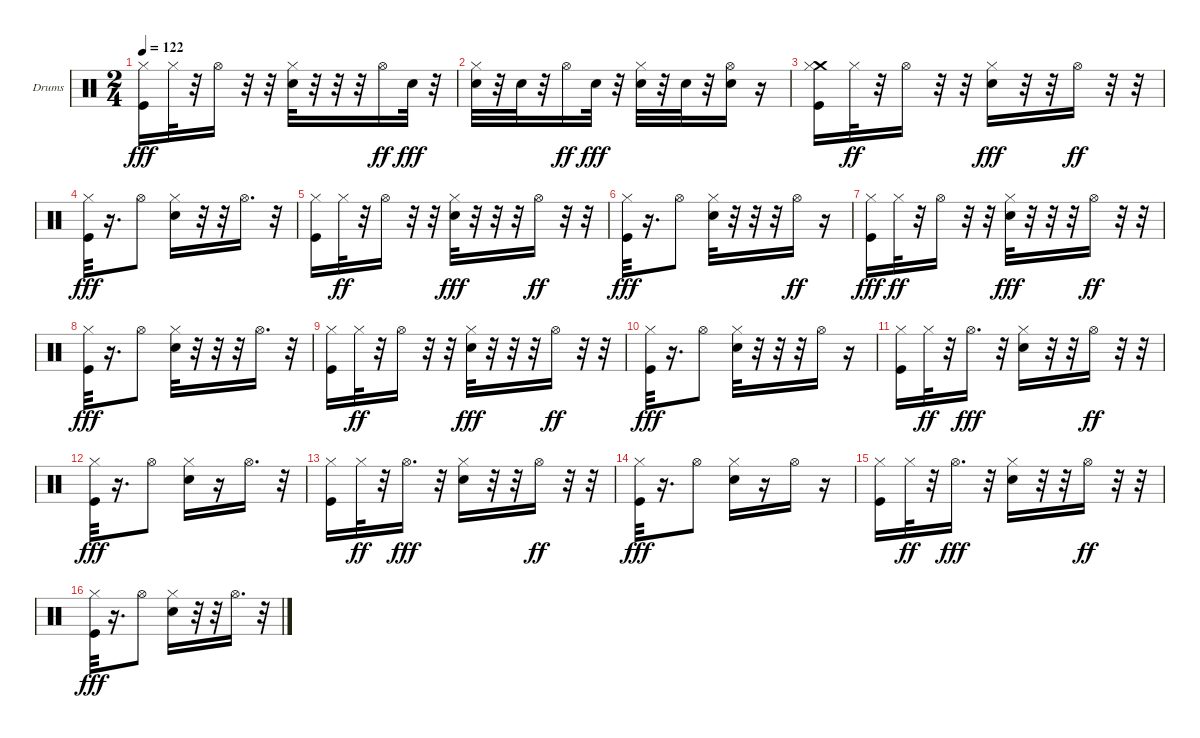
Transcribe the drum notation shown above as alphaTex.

\bracketExtendMode groupsimilarinstruments
\firstSystemTrackNameOrientation horizontal
\otherSystemsTrackNameOrientation horizontal
\track ("Ударные" "Drums") {instrument percussion}
\staff {score}
\articulation defaults
\ts (2 4)
\tempo 122
\clef neutral
\ks c
("Kick (hit)" "Hi-Hat (closed)").16{dy fff} "Hi-Hat (closed)".32 r.32 "Hi-Hat (open)".16 r.32 r.32 ("Snare (hit) 2" "Hi-Hat (closed)").32 r.32 r.32 r.32 "Hi-Hat (open)".16{dy ff} "Snare (hit) 2".32{dy fff} r.32 |
("Snare (hit) 2" "Hi-Hat (closed)").32 r.32 "Snare (hit) 2".32 r.32 "Hi-Hat (open)".16{dy ff} "Snare (hit) 2".32{dy fff} r.32 ("Snare (hit) 2" "Hi-Hat (closed)").32 r.32 "Snare (hit) 2".32 r.32 ("Snare (hit) 2" "Hi-Hat (open)").16 r.16 |
("Kick (hit)" "Crash medium (hit)" "Hi-Hat (closed)").16 "Hi-Hat (closed)".32{dy ff} r.32 "Hi-Hat (open)".16 r.32 r.32 ("Snare (hit) 2" "Hi-Hat (closed)").16{dy fff} r.32 r.32 "Hi-Hat (open)".16{dy ff} r.32 r.32 |
("Kick (hit)" "Hi-Hat (closed)").32{dy fff} r.16{d} "Hi-Hat (open)".8 ("Snare (hit) 2" "Hi-Hat (closed)").16 r.32 r.32 "Hi-Hat (open)".16{d} r.32 |
("Kick (hit)" "Hi-Hat (closed)").16 "Hi-Hat (closed)".32{dy ff} r.32 "Hi-Hat (open)".16 r.32 r.32 ("Snare (hit) 2" "Hi-Hat (closed)").32{dy fff} r.32 r.32 r.32 "Hi-Hat (open)".16{dy ff} r.32 r.32 |
("Kick (hit)" "Hi-Hat (closed)").32{dy fff} r.16{d} "Hi-Hat (open)".8 ("Snare (hit) 2" "Hi-Hat (closed)").32 r.32 r.32 r.32 "Hi-Hat (open)".16{dy ff} r.16 |
("Kick (hit)" "Hi-Hat (closed)").16{dy fff} "Hi-Hat (closed)".32{dy ff} r.32 "Hi-Hat (open)".16 r.32 r.32 ("Snare (hit) 2" "Hi-Hat (closed)").32{dy fff} r.32 r.32 r.32 "Hi-Hat (open)".16{dy ff} r.32 r.32 |
("Kick (hit)" "Hi-Hat (closed)").32{dy fff} r.16{d} "Hi-Hat (open)".8 ("Snare (hit) 2" "Hi-Hat (closed)").32 r.32 r.32 r.32 "Hi-Hat (open)".16{d} r.32 |
("Kick (hit)" "Hi-Hat (closed)").16 "Hi-Hat (closed)".32{dy ff} r.32 "Hi-Hat (open)".16 r.32 r.32 ("Snare (hit) 2" "Hi-Hat (closed)").32{dy fff} r.32 r.32 r.32 "Hi-Hat (open)".16{dy ff} r.32 r.32 |
("Kick (hit)" "Hi-Hat (closed)").32{dy fff} r.16{d} "Hi-Hat (open)".8 ("Snare (hit) 2" "Hi-Hat (closed)").32 r.32 r.32 r.32 "Hi-Hat (open)".16 r.16 |
("Kick (hit)" "Hi-Hat (closed)").16 "Hi-Hat (closed)".32{dy ff} r.32 "Hi-Hat (open)".16{d dy fff} r.32 ("Snare (hit) 2" "Hi-Hat (closed)").16 r.32 r.32 "Hi-Hat (open)".16{dy ff} r.32 r.32 |
("Kick (hit)" "Hi-Hat (closed)").32{dy fff} r.16{d} "Hi-Hat (open)".8 ("Snare (hit) 2" "Hi-Hat (closed)").16 r.16 "Hi-Hat (open)".16{d} r.32 |
("Kick (hit)" "Hi-Hat (closed)").16 "Hi-Hat (closed)".32{dy ff} r.32 "Hi-Hat (open)".16{d dy fff} r.32 ("Snare (hit) 2" "Hi-Hat (closed)").16 r.32 r.32 "Hi-Hat (open)".16{dy ff} r.32 r.32 |
("Kick (hit)" "Hi-Hat (closed)").32{dy fff} r.16{d} "Hi-Hat (open)".8 ("Snare (hit) 2" "Hi-Hat (closed)").16 r.16 "Hi-Hat (open)".16 r.16 |
("Kick (hit)" "Hi-Hat (closed)").16 "Hi-Hat (closed)".32{dy ff} r.32 "Hi-Hat (open)".16{d dy fff} r.32 ("Snare (hit) 2" "Hi-Hat (closed)").16 r.32 r.32 "Hi-Hat (open)".16{dy ff} r.32 r.32 |
("Kick (hit)" "Hi-Hat (closed)").32{dy fff} r.16{d} "Hi-Hat (open)".8 ("Snare (hit) 2" "Hi-Hat (closed)").16 r.32 r.32 "Hi-Hat (open)".16{d} r.32
